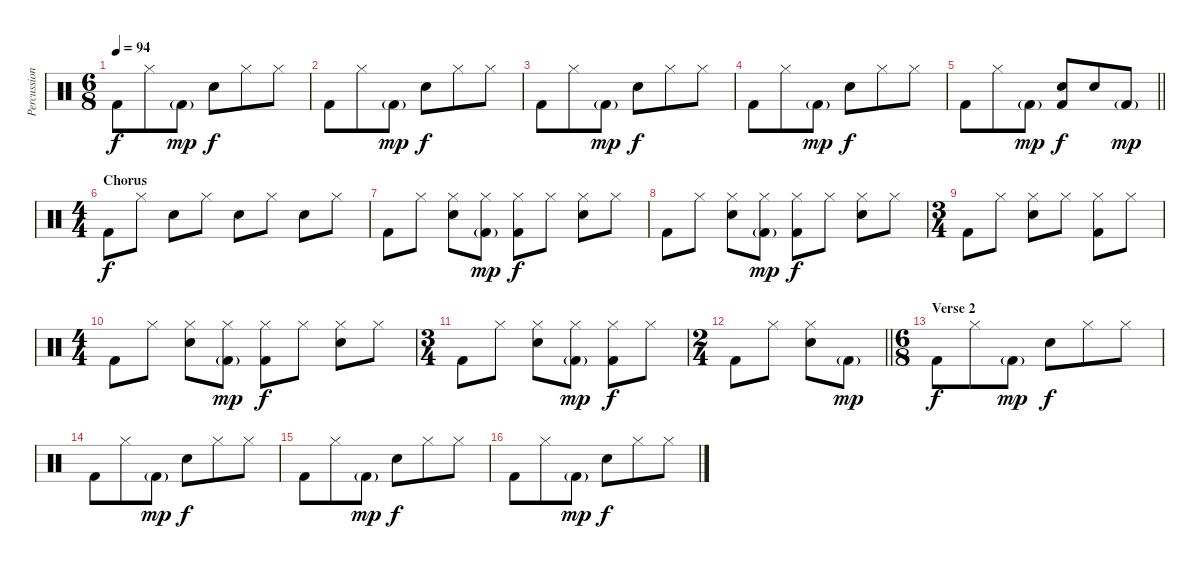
\track ("Percussion" "Percussion") {instrument percussion}
\staff {score}
\articulation defaults
\ts (6 8)
\tempo 94
\clef neutral
\ks c "Kick (hit) 2".8{dy f} "Hi-Hat (closed)".8 "Kick (hit) 2"{g}.8{dy mp} "Snare (hit) 2".8{dy f} "Hi-Hat (closed)".8 "Hi-Hat (closed)".8
|
"Kick (hit) 2".8 "Hi-Hat (closed)".8 "Kick (hit) 2"{g}.8{dy mp} "Snare (hit) 2".8{dy f} "Hi-Hat (closed)".8 "Hi-Hat (closed)".8 |
"Kick (hit) 2".8 "Hi-Hat (closed)".8 "Kick (hit) 2"{g}.8{dy mp} "Snare (hit) 2".8{dy f} "Hi-Hat (closed)".8 "Hi-Hat (closed)".8 |
"Kick (hit) 2".8 "Hi-Hat (closed)".8 "Kick (hit) 2"{g}.8{dy mp} "Snare (hit) 2".8{dy f} "Hi-Hat (closed)".8 "Hi-Hat (closed)".8 |
\barLineRight lightlight "Kick (hit) 2".8 "Hi-Hat (closed)".8 "Kick (hit) 2"{g}.8{dy mp}
("Snare (hit) 2" "Kick (hit) 2").8{dy f} "Snare (hit) 2".8 "Kick (hit) 2"{g}.8{dy mp} |
\ts (4 4)
\section ("" "Chorus")
"Kick (hit) 2".8{dy f} "Hi-Hat (closed)".8 "Snare (hit) 2".8 "Hi-Hat (closed)".8 "Snare (hit) 2".8 "Hi-Hat (closed)".8 "Snare (hit) 2".8 "Hi-Hat (closed)".8 |
"Kick (hit) 2".8 "Hi-Hat (closed)".8 ("Hi-Hat (closed)" "Snare (hit) 2").8 ("Hi-Hat (closed)" "Kick (hit) 2"{g}).8{dy mp} ("Hi-Hat (closed)" "Kick (hit) 2").8{dy f} "Hi-Hat (closed)".8 ("Hi-Hat (closed)" "Snare (hit) 2").8 "Hi-Hat (closed)".8 |
"Kick (hit) 2".8 "Hi-Hat (closed)".8 ("Hi-Hat (closed)" "Snare (hit) 2").8 ("Hi-Hat (closed)" "Kick (hit) 2"{g}).8{dy mp} ("Hi-Hat (closed)" "Kick (hit) 2").8{dy f} "Hi-Hat (closed)".8 ("Hi-Hat (closed)" "Snare (hit) 2").8 "Hi-Hat (closed)".8 |
\ts (3 4)
"Kick (hit) 2".8 "Hi-Hat (closed)".8 ("Hi-Hat (closed)" "Snare (hit) 2").8 "Hi-Hat (closed)".8 ("Hi-Hat (closed)" "Kick (hit) 2").8 "Hi-Hat (closed)".8 |
\ts (4 4)
"Kick (hit) 2".8 "Hi-Hat (closed)".8 ("Hi-Hat (closed)" "Snare (hit) 2").8 ("Hi-Hat (closed)" "Kick (hit) 2"{g}).8{dy mp} ("Hi-Hat (closed)" "Kick (hit) 2").8{dy f} "Hi-Hat (closed)".8 ("Hi-Hat (closed)" "Snare (hit) 2").8 "Hi-Hat (closed)".8 |
\ts (3 4)
"Kick (hit) 2".8 "Hi-Hat (closed)".8 ("Hi-Hat (closed)" "Snare (hit) 2").8 ("Hi-Hat (closed)" "Kick (hit) 2"{g}).8{dy mp} ("Hi-Hat (closed)" "Kick (hit) 2").8{dy f} "Hi-Hat (closed)".8 |
\ts (2 4)
\barLineRight lightlight "Kick (hit) 2".8 "Hi-Hat (closed)".8
("Hi-Hat (closed)" "Snare (hit) 2").8 "Kick (hit) 2"{g}.8{dy mp} |
\ts (6 8)
\section ("" "Verse 2")
"Kick (hit) 2".8{dy f} "Hi-Hat (closed)".8 "Kick (hit) 2"{g}.8{dy mp} "Snare (hit) 2".8{dy f} "Hi-Hat (closed)".8 "Hi-Hat (closed)".8 |
"Kick (hit) 2".8 "Hi-Hat (closed)".8 "Kick (hit) 2"{g}.8{dy mp} "Snare (hit) 2".8{dy f} "Hi-Hat (closed)".8 "Hi-Hat (closed)".8 |
"Kick (hit) 2".8 "Hi-Hat (closed)".8 "Kick (hit) 2"{g}.8{dy mp} "Snare (hit) 2".8{dy f} "Hi-Hat (closed)".8 "Hi-Hat (closed)".8 |
"Kick (hit) 2".8 "Hi-Hat (closed)".8 "Kick (hit) 2"{g}.8{dy mp} "Snare (hit) 2".8{dy f} "Hi-Hat (closed)".8 "Hi-Hat (closed)".8
